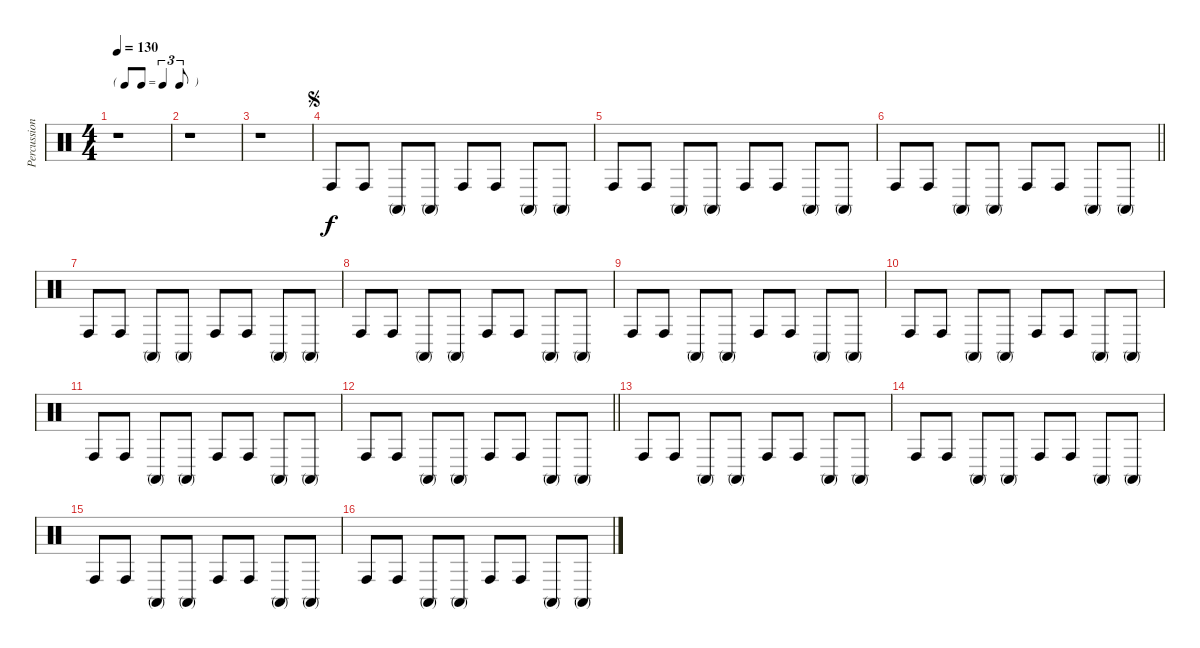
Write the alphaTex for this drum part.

\track ("Percussion" "Percussion") {instrument percussion}
\staff {score}
\articulation defaults
\ts (4 4)
\tf triplet8th
\tempo 130
\clef neutral
\ks c
r.1{dy f} |
r.1 |
r.1 |
\jump segno "Conga high (hit)".8 "Conga high (hit)".8 "Conga high (mute)".8 "Conga high (mute)".8 "Conga high (hit)".8 "Conga high (hit)".8 "Conga high (mute)".8 "Conga high (mute)".8
|
"Conga high (hit)".8 "Conga high (hit)".8 "Conga high (mute)".8 "Conga high (mute)".8 "Conga high (hit)".8 "Conga high (hit)".8 "Conga high (mute)".8 "Conga high (mute)".8 |
\barLineRight lightlight "Conga high (hit)".8 "Conga high (hit)".8 "Conga high (mute)".8 "Conga high (mute)".8 "Conga high (hit)".8 "Conga high (hit)".8 "Conga high (mute)".8 "Conga high (mute)".8
|
"Conga high (hit)".8 "Conga high (hit)".8 "Conga high (mute)".8 "Conga high (mute)".8 "Conga high (hit)".8 "Conga high (hit)".8 "Conga high (mute)".8 "Conga high (mute)".8 |
"Conga high (hit)".8 "Conga high (hit)".8 "Conga high (mute)".8 "Conga high (mute)".8 "Conga high (hit)".8 "Conga high (hit)".8 "Conga high (mute)".8 "Conga high (mute)".8 |
"Conga high (hit)".8 "Conga high (hit)".8 "Conga high (mute)".8 "Conga high (mute)".8 "Conga high (hit)".8 "Conga high (hit)".8 "Conga high (mute)".8 "Conga high (mute)".8 |
"Conga high (hit)".8 "Conga high (hit)".8 "Conga high (mute)".8 "Conga high (mute)".8 "Conga high (hit)".8 "Conga high (hit)".8 "Conga high (mute)".8 "Conga high (mute)".8 |
"Conga high (hit)".8 "Conga high (hit)".8 "Conga high (mute)".8 "Conga high (mute)".8 "Conga high (hit)".8 "Conga high (hit)".8 "Conga high (mute)".8 "Conga high (mute)".8 |
\barLineRight lightlight "Conga high (hit)".8 "Conga high (hit)".8 "Conga high (mute)".8 "Conga high (mute)".8 "Conga high (hit)".8 "Conga high (hit)".8 "Conga high (mute)".8 "Conga high (mute)".8
|
"Conga high (hit)".8 "Conga high (hit)".8 "Conga high (mute)".8 "Conga high (mute)".8 "Conga high (hit)".8 "Conga high (hit)".8 "Conga high (mute)".8 "Conga high (mute)".8 |
"Conga high (hit)".8 "Conga high (hit)".8 "Conga high (mute)".8 "Conga high (mute)".8 "Conga high (hit)".8 "Conga high (hit)".8 "Conga high (mute)".8 "Conga high (mute)".8 |
"Conga high (hit)".8 "Conga high (hit)".8 "Conga high (mute)".8 "Conga high (mute)".8 "Conga high (hit)".8 "Conga high (hit)".8 "Conga high (mute)".8 "Conga high (mute)".8 |
"Conga high (hit)".8 "Conga high (hit)".8 "Conga high (mute)".8 "Conga high (mute)".8 "Conga high (hit)".8 "Conga high (hit)".8 "Conga high (mute)".8 "Conga high (mute)".8
